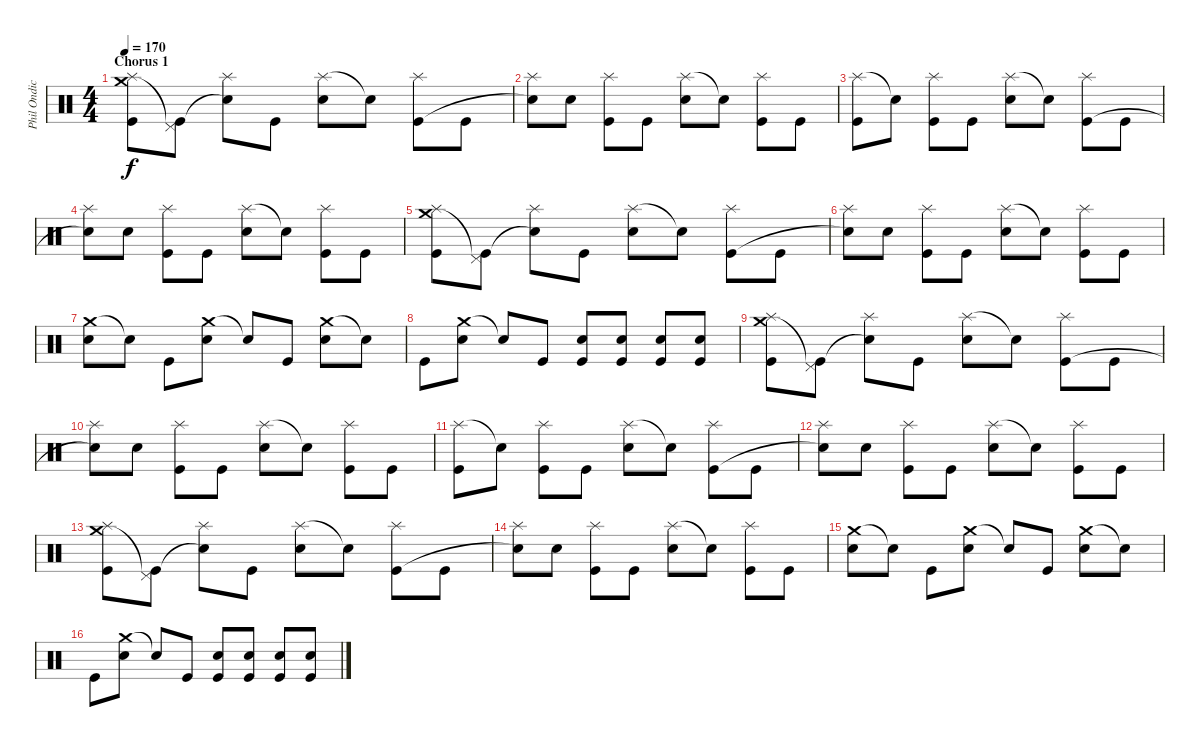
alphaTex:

\track ("Phil Ondich (Drums)" "Phil Ondic") {instrument percussion}
\staff {score}
\articulation defaults
\ts (4 4)
\section ("" "Chorus 1")
\tempo 170
\clef neutral
\ks c
("Crash medium (hit)" "Splash (hit)" "Kick (hit)").8{dy f} ("Pedal Hi-Hat (hit)"{t} "Kick (hit)").8 ("Splash (hit)" "Snare (hit)"{t}).8 "Kick (hit)".8 ("Splash (hit)" "Electric Snare (hit)").8 "Snare (hit)"{t}.8 ("Splash (hit)" "Kick (hit)").8 "Kick (hit)".8 |
("Splash (hit)" "Snare (hit)"{t}).8 "Electric Snare (hit)".8 ("Splash (hit)" "Kick (hit)").8 "Kick (hit)".8 ("Splash (hit)" "Electric Snare (hit)").8 "Snare (hit)"{t}.8 ("Splash (hit)" "Kick (hit)").8 "Kick (hit)".8 |
("Splash (hit)" "Kick (hit)").8 "Snare (hit)"{t}.8 ("Splash (hit)" "Kick (hit)").8 "Kick (hit)".8 ("Splash (hit)" "Electric Snare (hit)").8 "Snare (hit)"{t}.8 ("Splash (hit)" "Kick (hit)").8 "Kick (hit)".8 |
("Splash (hit)" "Snare (hit)"{t}).8 "Electric Snare (hit)".8 ("Splash (hit)" "Kick (hit)").8 "Kick (hit)".8 ("Splash (hit)" "Electric Snare (hit)").8 "Snare (hit)"{t}.8 ("Splash (hit)" "Kick (hit)").8 "Kick (hit)".8 |
("Crash medium (hit)" "Splash (hit)" "Kick (hit)").8 ("Pedal Hi-Hat (hit)"{t} "Kick (hit)").8 ("Splash (hit)" "Snare (hit)"{t}).8 "Kick (hit)".8 ("Splash (hit)" "Electric Snare (hit)").8 "Snare (hit)"{t}.8 ("Splash (hit)" "Kick (hit)").8 "Kick (hit)".8 |
("Splash (hit)" "Snare (hit)"{t}).8 "Electric Snare (hit)".8 ("Splash (hit)" "Kick (hit)").8 "Kick (hit)".8 ("Splash (hit)" "Electric Snare (hit)").8 "Snare (hit)"{t}.8 ("Splash (hit)" "Kick (hit)").8 "Kick (hit)".8 |
("Crash medium (hit)" "Electric Snare (hit)").8 "Snare (hit)"{t}.8 "Kick (hit)".8 ("Crash medium (hit)" "Electric Snare (hit)").8 "Snare (hit)"{t}.8 "Kick (hit)".8 ("Crash medium (hit)" "Electric Snare (hit)").8 "Snare (hit)"{t}.8 |
"Kick (hit)".8 ("Crash medium (hit)" "Electric Snare (hit)").8 "Snare (hit)"{t}.8 "Kick (hit)".8 ("Electric Snare (hit)" "Kick (hit)").8 ("Electric Snare (hit)" "Kick (hit)").8 ("Electric Snare (hit)" "Kick (hit)").8 ("Electric Snare (hit)" "Kick (hit)").8 |
("Crash medium (hit)" "Splash (hit)" "Kick (hit)").8 ("Pedal Hi-Hat (hit)"{t} "Kick (hit)").8 ("Splash (hit)" "Snare (hit)"{t}).8 "Kick (hit)".8 ("Splash (hit)" "Electric Snare (hit)").8 "Snare (hit)"{t}.8 ("Splash (hit)" "Kick (hit)").8 "Kick (hit)".8 |
("Splash (hit)" "Snare (hit)"{t}).8 "Electric Snare (hit)".8 ("Splash (hit)" "Kick (hit)").8 "Kick (hit)".8 ("Splash (hit)" "Electric Snare (hit)").8 "Snare (hit)"{t}.8 ("Splash (hit)" "Kick (hit)").8 "Kick (hit)".8 |
("Splash (hit)" "Kick (hit)").8 "Snare (hit)"{t}.8 ("Splash (hit)" "Kick (hit)").8 "Kick (hit)".8 ("Splash (hit)" "Electric Snare (hit)").8 "Snare (hit)"{t}.8 ("Splash (hit)" "Kick (hit)").8 "Kick (hit)".8 |
("Splash (hit)" "Snare (hit)"{t}).8 "Electric Snare (hit)".8 ("Splash (hit)" "Kick (hit)").8 "Kick (hit)".8 ("Splash (hit)" "Electric Snare (hit)").8 "Snare (hit)"{t}.8 ("Splash (hit)" "Kick (hit)").8 "Kick (hit)".8 |
("Crash medium (hit)" "Splash (hit)" "Kick (hit)").8 ("Pedal Hi-Hat (hit)"{t} "Kick (hit)").8 ("Splash (hit)" "Snare (hit)"{t}).8 "Kick (hit)".8 ("Splash (hit)" "Electric Snare (hit)").8 "Snare (hit)"{t}.8 ("Splash (hit)" "Kick (hit)").8 "Kick (hit)".8 |
("Splash (hit)" "Snare (hit)"{t}).8 "Electric Snare (hit)".8 ("Splash (hit)" "Kick (hit)").8 "Kick (hit)".8 ("Splash (hit)" "Electric Snare (hit)").8 "Snare (hit)"{t}.8 ("Splash (hit)" "Kick (hit)").8 "Kick (hit)".8 |
("Crash medium (hit)" "Electric Snare (hit)").8 "Snare (hit)"{t}.8 "Kick (hit)".8 ("Crash medium (hit)" "Electric Snare (hit)").8 "Snare (hit)"{t}.8 "Kick (hit)".8 ("Crash medium (hit)" "Electric Snare (hit)").8 "Snare (hit)"{t}.8 |
"Kick (hit)".8 ("Crash medium (hit)" "Electric Snare (hit)").8 "Snare (hit)"{t}.8 "Kick (hit)".8 ("Electric Snare (hit)" "Kick (hit)").8 ("Electric Snare (hit)" "Kick (hit)").8 ("Electric Snare (hit)" "Kick (hit)").8 ("Electric Snare (hit)" "Kick (hit)").8
